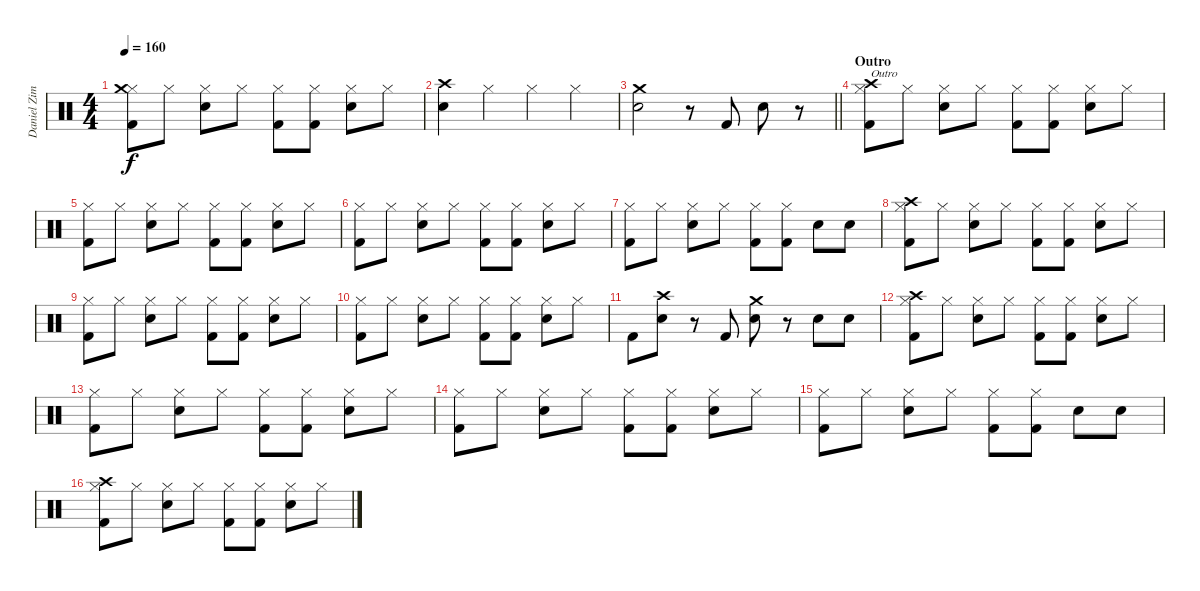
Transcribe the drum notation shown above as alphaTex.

\track ("Daniel Zimmermann" "Daniel Zim") {instrument percussion}
\staff {score}
\articulation defaults
\ts (4 4)
\tempo 160
\clef neutral
\ks c
("Hi-Hat (closed)" "Kick (hit) 2" "Crash medium (hit)").8{dy f} "Hi-Hat (closed)".8 ("Hi-Hat (closed)" "Snare (hit) 2").8 "Hi-Hat (closed)".8 ("Hi-Hat (closed)" "Kick (hit) 2").8 ("Hi-Hat (closed)" "Kick (hit) 2").8 ("Hi-Hat (closed)" "Snare (hit) 2").8 "Hi-Hat (closed)".8 |
("Snare (hit) 2" "Crash high (hit)").4 "Hi-Hat (closed)".4 "Hi-Hat (closed)".4 "Hi-Hat (closed)".4 |
\barLineRight lightlight
("Snare (hit) 2" "Crash medium (hit)").2 r.8 "Kick (hit) 2".8 "Snare (hit) 2".8 r.8 |
\section ("" "Outro")
("Hi-Hat (closed)" "Kick (hit) 2" "Crash high (hit)").8{txt "Outro"} "Hi-Hat (closed)".8 ("Hi-Hat (closed)" "Snare (hit) 2").8 "Hi-Hat (closed)".8 ("Hi-Hat (closed)" "Kick (hit) 2").8 ("Hi-Hat (closed)" "Kick (hit) 2").8 ("Hi-Hat (closed)" "Snare (hit) 2").8 "Hi-Hat (closed)".8 |
("Hi-Hat (closed)" "Kick (hit) 2").8 "Hi-Hat (closed)".8 ("Hi-Hat (closed)" "Snare (hit) 2").8 "Hi-Hat (closed)".8 ("Hi-Hat (closed)" "Kick (hit) 2").8 ("Hi-Hat (closed)" "Kick (hit) 2").8 ("Hi-Hat (closed)" "Snare (hit) 2").8 "Hi-Hat (closed)".8 |
("Hi-Hat (closed)" "Kick (hit) 2").8 "Hi-Hat (closed)".8 ("Hi-Hat (closed)" "Snare (hit) 2").8 "Hi-Hat (closed)".8 ("Hi-Hat (closed)" "Kick (hit) 2").8 ("Hi-Hat (closed)" "Kick (hit) 2").8 ("Hi-Hat (closed)" "Snare (hit) 2").8 "Hi-Hat (closed)".8 |
("Hi-Hat (closed)" "Kick (hit) 2").8 "Hi-Hat (closed)".8 ("Hi-Hat (closed)" "Snare (hit) 2").8 "Hi-Hat (closed)".8 ("Hi-Hat (closed)" "Kick (hit) 2").8 ("Hi-Hat (closed)" "Kick (hit) 2").8 "Snare (hit) 2".8 "Snare (hit) 2".8 |
("Hi-Hat (closed)" "Kick (hit) 2" "Crash high (hit)").8 "Hi-Hat (closed)".8 ("Hi-Hat (closed)" "Snare (hit) 2").8 "Hi-Hat (closed)".8 ("Hi-Hat (closed)" "Kick (hit) 2").8 ("Hi-Hat (closed)" "Kick (hit) 2").8 ("Hi-Hat (closed)" "Snare (hit) 2").8 "Hi-Hat (closed)".8 |
("Hi-Hat (closed)" "Kick (hit) 2").8 "Hi-Hat (closed)".8 ("Hi-Hat (closed)" "Snare (hit) 2").8 "Hi-Hat (closed)".8 ("Hi-Hat (closed)" "Kick (hit) 2").8 ("Hi-Hat (closed)" "Kick (hit) 2").8 ("Hi-Hat (closed)" "Snare (hit) 2").8 "Hi-Hat (closed)".8 |
("Hi-Hat (closed)" "Kick (hit) 2").8 "Hi-Hat (closed)".8 ("Hi-Hat (closed)" "Snare (hit) 2").8 "Hi-Hat (closed)".8 ("Hi-Hat (closed)" "Kick (hit) 2").8 ("Hi-Hat (closed)" "Kick (hit) 2").8 ("Hi-Hat (closed)" "Snare (hit) 2").8 "Hi-Hat (closed)".8 |
"Kick (hit) 2".8 ("Snare (hit) 2" "Crash high (hit)").8 r.8 "Kick (hit) 2".8 ("Snare (hit) 2" "Crash medium (hit)").8 r.8 "Snare (hit) 2".8 "Snare (hit) 2".8 |
("Hi-Hat (closed)" "Kick (hit) 2" "Crash high (hit)").8 "Hi-Hat (closed)".8 ("Hi-Hat (closed)" "Snare (hit) 2").8 "Hi-Hat (closed)".8 ("Hi-Hat (closed)" "Kick (hit) 2").8 ("Hi-Hat (closed)" "Kick (hit) 2").8 ("Hi-Hat (closed)" "Snare (hit) 2").8 "Hi-Hat (closed)".8 |
("Hi-Hat (closed)" "Kick (hit) 2").8 "Hi-Hat (closed)".8 ("Hi-Hat (closed)" "Snare (hit) 2").8 "Hi-Hat (closed)".8 ("Hi-Hat (closed)" "Kick (hit) 2").8 ("Hi-Hat (closed)" "Kick (hit) 2").8 ("Hi-Hat (closed)" "Snare (hit) 2").8 "Hi-Hat (closed)".8 |
("Hi-Hat (closed)" "Kick (hit) 2").8 "Hi-Hat (closed)".8 ("Hi-Hat (closed)" "Snare (hit) 2").8 "Hi-Hat (closed)".8 ("Hi-Hat (closed)" "Kick (hit) 2").8 ("Hi-Hat (closed)" "Kick (hit) 2").8 ("Hi-Hat (closed)" "Snare (hit) 2").8 "Hi-Hat (closed)".8 |
("Hi-Hat (closed)" "Kick (hit) 2").8 "Hi-Hat (closed)".8 ("Hi-Hat (closed)" "Snare (hit) 2").8 "Hi-Hat (closed)".8 ("Hi-Hat (closed)" "Kick (hit) 2").8 ("Hi-Hat (closed)" "Kick (hit) 2").8 "Snare (hit) 2".8 "Snare (hit) 2".8 |
("Hi-Hat (closed)" "Kick (hit) 2" "Crash high (hit)").8 "Hi-Hat (closed)".8 ("Hi-Hat (closed)" "Snare (hit) 2").8 "Hi-Hat (closed)".8 ("Hi-Hat (closed)" "Kick (hit) 2").8 ("Hi-Hat (closed)" "Kick (hit) 2").8 ("Hi-Hat (closed)" "Snare (hit) 2").8 "Hi-Hat (closed)".8
